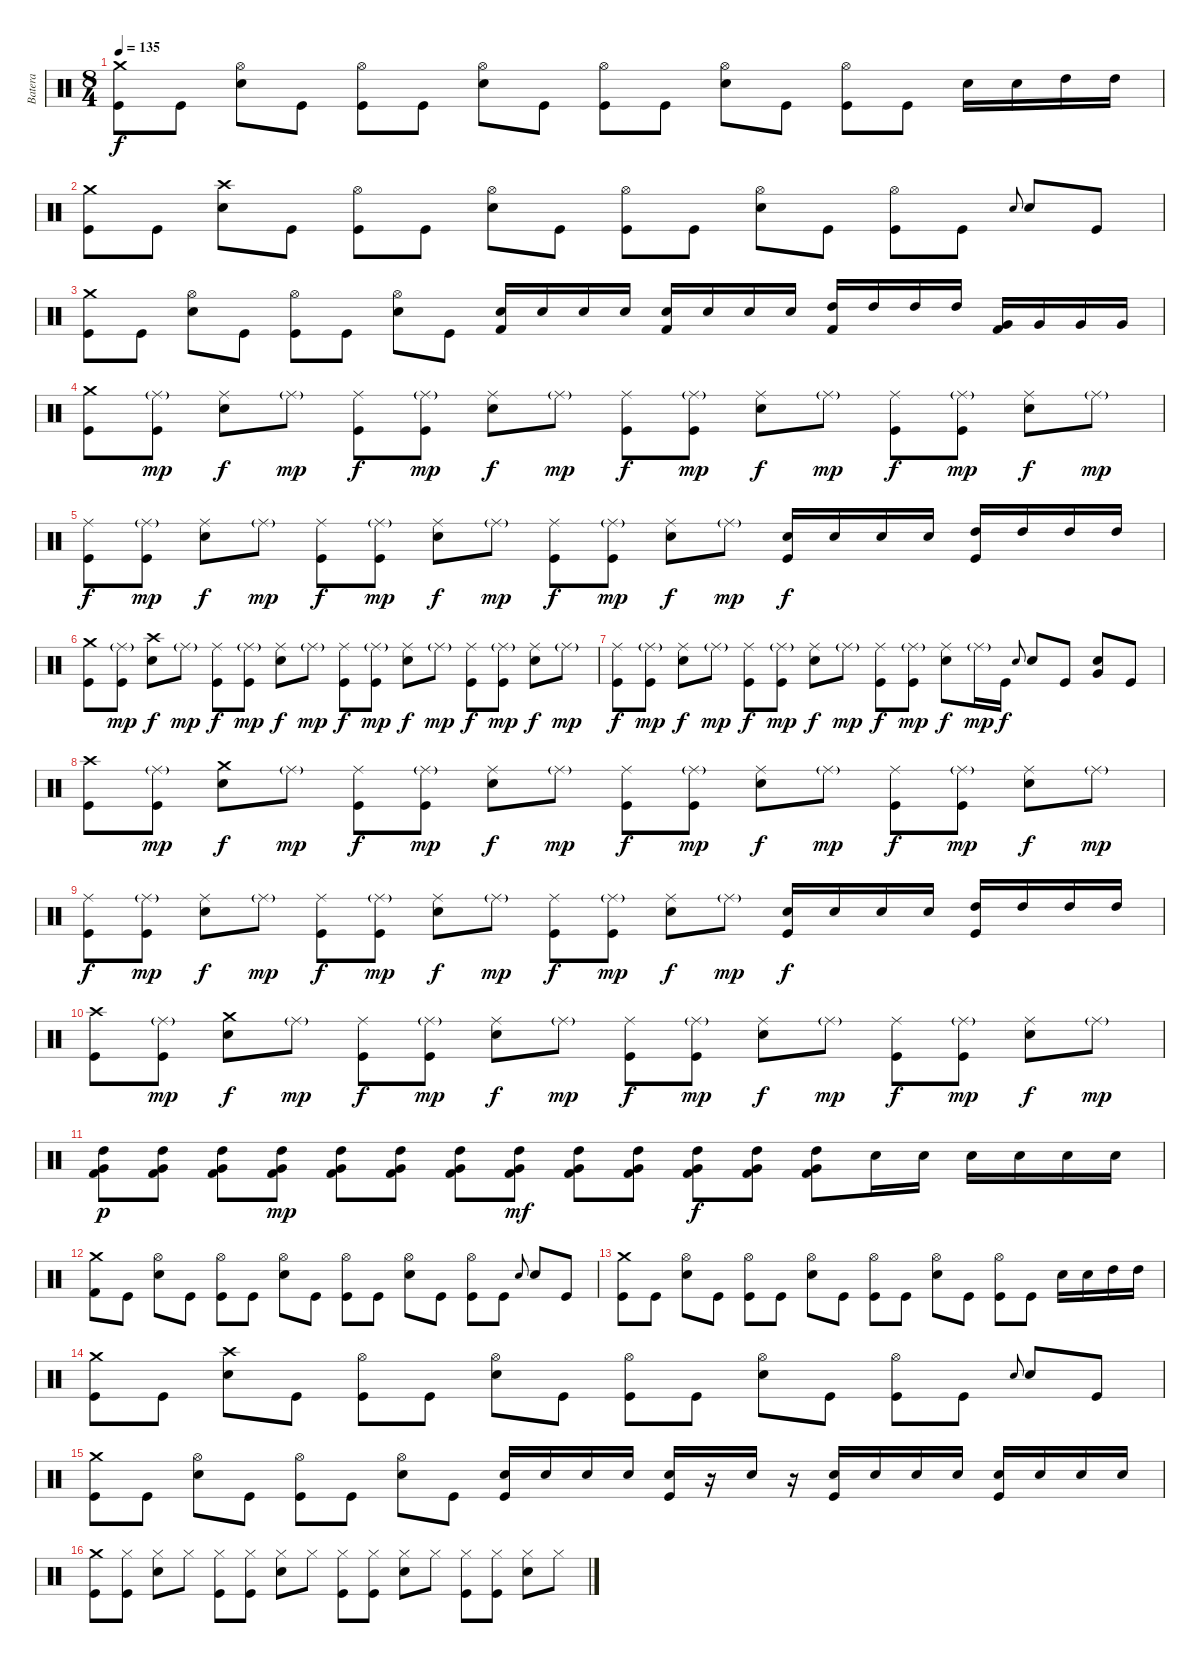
\track ("Batera" "Batera") {instrument percussion}
\staff {score}
\articulation defaults
\ts (8 4)
\tempo 135
\clef neutral
\ks c
("Kick (hit)" "Crash medium (hit)").8{dy f} "Kick (hit)".8 ("Snare (hit) 2" "Hi-Hat (open)").8 "Kick (hit)".8 ("Kick (hit)" "Hi-Hat (open)").8 "Kick (hit)".8 ("Snare (hit) 2" "Hi-Hat (open)").8 "Kick (hit)".8 ("Kick (hit)" "Hi-Hat (open)").8 "Kick (hit)".8 ("Snare (hit) 2" "Hi-Hat (open)").8 "Kick (hit)".8 ("Kick (hit)" "Hi-Hat (open)").8 "Kick (hit)".8 "Snare (hit) 2".16 "Snare (hit) 2".16 "High Tom (hit)".16 "High Tom (hit)".16 |
("Kick (hit)" "Crash medium (hit)").8 "Kick (hit)".8 ("Snare (hit) 2" "Crash high (hit)").8 "Kick (hit)".8 ("Kick (hit)" "Hi-Hat (open)").8 "Kick (hit)".8 ("Snare (hit) 2" "Hi-Hat (open)").8 "Kick (hit)".8 ("Kick (hit)" "Hi-Hat (open)").8 "Kick (hit)".8 ("Snare (hit) 2" "Hi-Hat (open)").8 "Kick (hit)".8 ("Kick (hit)" "Hi-Hat (open)").8 "Kick (hit)".8 "Snare (hit) 2".8{gr onbeat} "Snare (hit) 2".8 "Kick (hit)".8 |
("Crash medium (hit)" "Kick (hit)").8 "Kick (hit)".8 ("Snare (hit) 2" "Hi-Hat (open)").8 "Kick (hit)".8 ("Kick (hit)" "Hi-Hat (open)").8 "Kick (hit)".8 ("Snare (hit) 2" "Hi-Hat (open)").8 "Kick (hit)".8 ("Snare (hit) 2" "Kick (hit) 2").16 "Snare (hit) 2".16 "Snare (hit) 2".16 "Snare (hit) 2".16 ("Snare (hit) 2" "Kick (hit) 2").16 "Snare (hit) 2".16 "Snare (hit) 2".16 "Snare (hit) 2".16 ("High Tom (hit)" "Kick (hit) 2").16 "High Tom (hit)".16 "High Tom (hit)".16 "High Tom (hit)".16 ("Very Low Tom (hit)" "Kick (hit) 2").16 "Very Low Tom (hit)".16 "Very Low Tom (hit)".16 "Very Low Tom (hit)".16 |
("Kick (hit)" "Crash medium (hit)").8 ("Kick (hit)" "Ride (middle)"{g}).8{dy mp} ("Snare (hit) 2" "Ride (middle)").8{dy f} "Ride (middle)"{g}.8{dy mp} ("Kick (hit)" "Ride (middle)").8{dy f} ("Kick (hit)" "Ride (middle)"{g}).8{dy mp} ("Snare (hit) 2" "Ride (middle)").8{dy f} "Ride (middle)"{g}.8{dy mp} ("Kick (hit)" "Ride (middle)").8{dy f} ("Kick (hit)" "Ride (middle)"{g}).8{dy mp} ("Snare (hit) 2" "Ride (middle)").8{dy f} "Ride (middle)"{g}.8{dy mp} ("Kick (hit)" "Ride (middle)").8{dy f} ("Kick (hit)" "Ride (middle)"{g}).8{dy mp} ("Snare (hit) 2" "Ride (middle)").8{dy f} "Ride (middle)"{g}.8{dy mp} |
("Kick (hit)" "Ride (middle)").8{dy f} ("Kick (hit)" "Ride (middle)"{g}).8{dy mp} ("Snare (hit) 2" "Ride (middle)").8{dy f} "Ride (middle)"{g}.8{dy mp} ("Kick (hit)" "Ride (middle)").8{dy f} ("Kick (hit)" "Ride (middle)"{g}).8{dy mp} ("Snare (hit) 2" "Ride (middle)").8{dy f} "Ride (middle)"{g}.8{dy mp} ("Kick (hit)" "Ride (middle)").8{dy f} ("Kick (hit)" "Ride (middle)"{g}).8{dy mp} ("Snare (hit) 2" "Ride (middle)").8{dy f} "Ride (middle)"{g}.8{dy mp} ("Snare (hit) 2" "Kick (hit)").16{dy f} "Snare (hit) 2".16 "Snare (hit) 2".16 "Snare (hit) 2".16 ("High Tom (hit)" "Kick (hit)").16 "High Tom (hit)".16 "High Tom (hit)".16 "High Tom (hit)".16 |
("Kick (hit)" "Crash medium (hit)").8 ("Kick (hit)" "Ride (middle)"{g}).8{dy mp} ("Snare (hit) 2" "Crash high (hit)").8{dy f} "Ride (middle)"{g}.8{dy mp} ("Kick (hit)" "Ride (middle)").8{dy f} ("Kick (hit)" "Ride (middle)"{g}).8{dy mp} ("Snare (hit) 2" "Ride (middle)").8{dy f} "Ride (middle)"{g}.8{dy mp} ("Kick (hit)" "Ride (middle)").8{dy f} ("Kick (hit)" "Ride (middle)"{g}).8{dy mp} ("Snare (hit) 2" "Ride (middle)").8{dy f} "Ride (middle)"{g}.8{dy mp} ("Kick (hit)" "Ride (middle)").8{dy f} ("Kick (hit)" "Ride (middle)"{g}).8{dy mp} ("Ride (middle)" "Snare (hit) 2").8{dy f} "Ride (middle)"{g}.8{dy mp} |
("Kick (hit)" "Ride (middle)").8{dy f} ("Kick (hit)" "Ride (middle)"{g}).8{dy mp} ("Snare (hit) 2" "Ride (middle)").8{dy f} "Ride (middle)"{g}.8{dy mp} ("Kick (hit)" "Ride (middle)").8{dy f} ("Kick (hit)" "Ride (middle)"{g}).8{dy mp} ("Snare (hit) 2" "Ride (middle)").8{dy f} "Ride (middle)"{g}.8{dy mp} ("Kick (hit)" "Ride (middle)").8{dy f} ("Kick (hit)" "Ride (middle)"{g}).8{dy mp} ("Snare (hit) 2" "Ride (middle)").8{dy f} "Ride (middle)"{g}.16{dy mp} "Kick (hit)".16{dy f} "Snare (hit) 2".8{gr onbeat} "Snare (hit) 2".8 "Kick (hit)".8 ("Snare (hit) 2" "Very Low Tom (hit)").8 "Kick (hit)".8 |
("Kick (hit)" "Crash high (hit)").8 ("Kick (hit)" "Ride (middle)"{g}).8{dy mp} ("Snare (hit) 2" "Crash medium (hit)").8{dy f} "Ride (middle)"{g}.8{dy mp} ("Kick (hit)" "Ride (middle)").8{dy f} ("Kick (hit)" "Ride (middle)"{g}).8{dy mp} ("Snare (hit) 2" "Ride (middle)").8{dy f} "Ride (middle)"{g}.8{dy mp} ("Kick (hit)" "Ride (middle)").8{dy f} ("Kick (hit)" "Ride (middle)"{g}).8{dy mp} ("Snare (hit) 2" "Ride (middle)").8{dy f} "Ride (middle)"{g}.8{dy mp} ("Kick (hit)" "Ride (middle)").8{dy f} ("Kick (hit)" "Ride (middle)"{g}).8{dy mp} ("Ride (middle)" "Snare (hit) 2").8{dy f} "Ride (middle)"{g}.8{dy mp} |
("Kick (hit)" "Ride (middle)").8{dy f} ("Kick (hit)" "Ride (middle)"{g}).8{dy mp} ("Snare (hit) 2" "Ride (middle)").8{dy f} "Ride (middle)"{g}.8{dy mp} ("Kick (hit)" "Ride (middle)").8{dy f} ("Kick (hit)" "Ride (middle)"{g}).8{dy mp} ("Snare (hit) 2" "Ride (middle)").8{dy f} "Ride (middle)"{g}.8{dy mp} ("Kick (hit)" "Ride (middle)").8{dy f} ("Kick (hit)" "Ride (middle)"{g}).8{dy mp} ("Snare (hit) 2" "Ride (middle)").8{dy f} "Ride (middle)"{g}.8{dy mp} ("Snare (hit) 2" "Kick (hit)").16{dy f} "Snare (hit) 2".16 "Snare (hit) 2".16 "Snare (hit) 2".16 ("High Tom (hit)" "Kick (hit)").16 "High Tom (hit)".16 "High Tom (hit)".16 "High Tom (hit)".16 |
("Kick (hit)" "Crash high (hit)").8 ("Kick (hit)" "Ride (middle)"{g}).8{dy mp} ("Snare (hit) 2" "Crash medium (hit)").8{dy f} "Ride (middle)"{g}.8{dy mp} ("Kick (hit)" "Ride (middle)").8{dy f} ("Kick (hit)" "Ride (middle)"{g}).8{dy mp} ("Snare (hit) 2" "Ride (middle)").8{dy f} "Ride (middle)"{g}.8{dy mp} ("Kick (hit)" "Ride (middle)").8{dy f} ("Kick (hit)" "Ride (middle)"{g}).8{dy mp} ("Snare (hit) 2" "Ride (middle)").8{dy f} "Ride (middle)"{g}.8{dy mp} ("Kick (hit)" "Ride (middle)").8{dy f} ("Kick (hit)" "Ride (middle)"{g}).8{dy mp} ("Ride (middle)" "Snare (hit) 2").8{dy f} "Ride (middle)"{g}.8{dy mp} |
("Kick (hit) 2" "Very Low Tom (hit)" "High Tom (hit)").8{dy p} ("Kick (hit) 2" "Very Low Tom (hit)" "High Tom (hit)").8 ("Kick (hit) 2" "Very Low Tom (hit)" "High Tom (hit)").8 ("Kick (hit) 2" "Very Low Tom (hit)" "High Tom (hit)").8{dy mp} ("Kick (hit) 2" "Very Low Tom (hit)" "High Tom (hit)").8 ("Kick (hit) 2" "Very Low Tom (hit)" "High Tom (hit)").8 ("Kick (hit) 2" "Very Low Tom (hit)" "High Tom (hit)").8 ("Kick (hit) 2" "Very Low Tom (hit)" "High Tom (hit)").8{dy mf} ("Kick (hit) 2" "Very Low Tom (hit)" "High Tom (hit)").8 ("Kick (hit) 2" "Very Low Tom (hit)" "High Tom (hit)").8 ("Kick (hit) 2" "Very Low Tom (hit)" "High Tom (hit)").8{dy f} ("Kick (hit) 2" "Very Low Tom (hit)" "High Tom (hit)").8 ("Kick (hit) 2" "Very Low Tom (hit)" "High Tom (hit)").8 "Snare (hit) 2".16 "Snare (hit) 2".16 "Snare (hit) 2".16 "Snare (hit) 2".16 "Snare (hit) 2".16 "Snare (hit) 2".16 |
("Kick (hit) 2" "Crash medium (hit)").8 "Kick (hit)".8 ("Snare (hit) 2" "Hi-Hat (open)").8 "Kick (hit)".8 ("Kick (hit)" "Hi-Hat (open)").8 "Kick (hit)".8 ("Snare (hit) 2" "Hi-Hat (open)").8 "Kick (hit)".8 ("Kick (hit)" "Hi-Hat (open)").8 "Kick (hit)".8 ("Snare (hit) 2" "Hi-Hat (open)").8 "Kick (hit)".8 ("Kick (hit)" "Hi-Hat (open)").8 "Kick (hit)".8 "Snare (hit) 2".8{gr onbeat} "Snare (hit) 2".8 "Kick (hit)".8 |
("Kick (hit)" "Crash medium (hit)").8 "Kick (hit)".8 ("Snare (hit) 2" "Hi-Hat (open)").8 "Kick (hit)".8 ("Kick (hit)" "Hi-Hat (open)").8 "Kick (hit)".8 ("Snare (hit) 2" "Hi-Hat (open)").8 "Kick (hit)".8 ("Kick (hit)" "Hi-Hat (open)").8 "Kick (hit)".8 ("Snare (hit) 2" "Hi-Hat (open)").8 "Kick (hit)".8 ("Kick (hit)" "Hi-Hat (open)").8 "Kick (hit)".8 "Snare (hit) 2".16 "Snare (hit) 2".16 "High Tom (hit)".16 "High Tom (hit)".16 |
("Kick (hit)" "Crash medium (hit)").8 "Kick (hit)".8 ("Snare (hit) 2" "Crash high (hit)").8 "Kick (hit)".8 ("Kick (hit)" "Hi-Hat (open)").8 "Kick (hit)".8 ("Snare (hit) 2" "Hi-Hat (open)").8 "Kick (hit)".8 ("Kick (hit)" "Hi-Hat (open)").8 "Kick (hit)".8 ("Snare (hit) 2" "Hi-Hat (open)").8 "Kick (hit)".8 ("Kick (hit)" "Hi-Hat (open)").8 "Kick (hit)".8 "Snare (hit) 2".8{gr onbeat} "Snare (hit) 2".8 "Kick (hit)".8 |
("Kick (hit)" "Crash medium (hit)").8 "Kick (hit)".8 ("Snare (hit) 2" "Hi-Hat (open)").8 "Kick (hit)".8 ("Kick (hit)" "Hi-Hat (open)").8 "Kick (hit)".8 ("Snare (hit) 2" "Hi-Hat (open)").8 "Kick (hit)".8 ("Snare (hit) 2" "Kick (hit)").16 "Snare (hit) 2".16 "Snare (hit) 2".16 "Snare (hit) 2".16 ("Snare (hit) 2" "Kick (hit)").16 r.16 "Snare (hit) 2".16 r.16 ("Snare (hit) 2" "Kick (hit)").16 "Snare (hit) 2".16 "Snare (hit) 2".16 "Snare (hit) 2".16 ("Snare (hit) 2" "Kick (hit)").16 "Snare (hit) 2".16 "Snare (hit) 2".16 "Snare (hit) 2".16 |
("Kick (hit)" "Crash medium (hit)").8 ("Hi-Hat (closed)" "Kick (hit)").8 ("Snare (hit) 2" "Hi-Hat (closed)").8 "Hi-Hat (closed)".8 ("Kick (hit)" "Hi-Hat (closed)").8 ("Kick (hit)" "Hi-Hat (closed)").8 ("Snare (hit) 2" "Hi-Hat (closed)").8 "Hi-Hat (closed)".8 ("Kick (hit)" "Hi-Hat (closed)").8 ("Kick (hit)" "Hi-Hat (closed)").8 ("Snare (hit) 2" "Hi-Hat (closed)").8 "Hi-Hat (closed)".8 ("Kick (hit)" "Hi-Hat (closed)").8 ("Kick (hit)" "Hi-Hat (closed)").8 ("Snare (hit) 2" "Hi-Hat (closed)").8 "Hi-Hat (closed)".8
